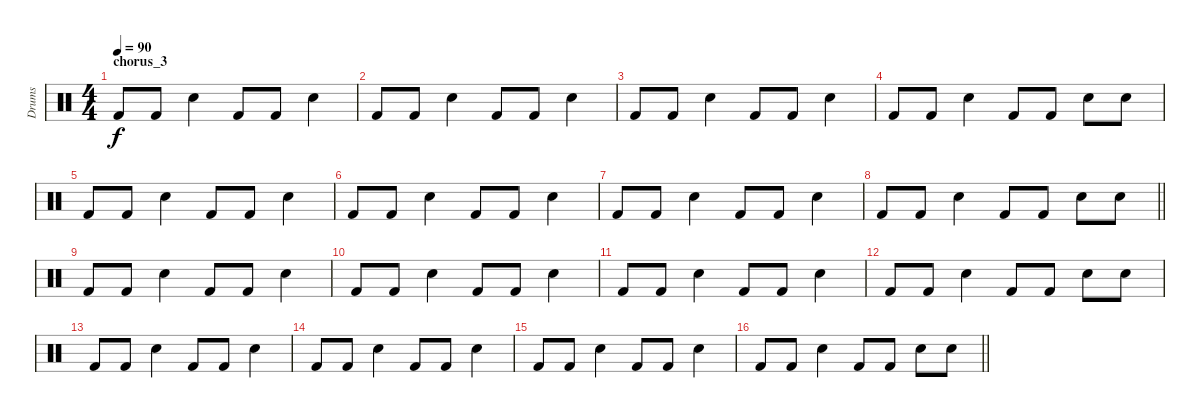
\track ("Drums" "Drums") {instrument percussion}
\staff {score}
\articulation defaults
\ts (4 4)
\section ("" "chorus_3")
\tempo 90
\clef neutral
\ks c "Kick (hit) 2".8{dy f} "Kick (hit) 2".8 "Electric Snare (hit)".4 "Kick (hit) 2".8 "Kick (hit) 2".8 "Electric Snare (hit)".4
|
"Kick (hit) 2".8 "Kick (hit) 2".8 "Electric Snare (hit)".4 "Kick (hit) 2".8 "Kick (hit) 2".8 "Electric Snare (hit)".4 |
"Kick (hit) 2".8 "Kick (hit) 2".8 "Electric Snare (hit)".4 "Kick (hit) 2".8 "Kick (hit) 2".8 "Electric Snare (hit)".4 |
"Kick (hit) 2".8 "Kick (hit) 2".8 "Electric Snare (hit)".4 "Kick (hit) 2".8 "Kick (hit) 2".8 "Electric Snare (hit)".8 "Snare (hit) 2".8 |
"Kick (hit) 2".8 "Kick (hit) 2".8 "Electric Snare (hit)".4 "Kick (hit) 2".8 "Kick (hit) 2".8 "Electric Snare (hit)".4 |
"Kick (hit) 2".8 "Kick (hit) 2".8 "Electric Snare (hit)".4 "Kick (hit) 2".8 "Kick (hit) 2".8 "Electric Snare (hit)".4 |
"Kick (hit) 2".8 "Kick (hit) 2".8 "Electric Snare (hit)".4 "Kick (hit) 2".8 "Kick (hit) 2".8 "Electric Snare (hit)".4 |
\barLineRight lightlight "Kick (hit) 2".8 "Kick (hit) 2".8 "Electric Snare (hit)".4 "Kick (hit) 2".8 "Kick (hit) 2".8 "Electric Snare (hit)".8 "Snare (hit) 2".8
|
\section ("" "")
"Kick (hit) 2".8 "Kick (hit) 2".8 "Electric Snare (hit)".4 "Kick (hit) 2".8 "Kick (hit) 2".8 "Electric Snare (hit)".4 |
"Kick (hit) 2".8 "Kick (hit) 2".8 "Electric Snare (hit)".4 "Kick (hit) 2".8 "Kick (hit) 2".8 "Electric Snare (hit)".4 |
"Kick (hit) 2".8 "Kick (hit) 2".8 "Electric Snare (hit)".4 "Kick (hit) 2".8 "Kick (hit) 2".8 "Electric Snare (hit)".4 |
"Kick (hit) 2".8 "Kick (hit) 2".8 "Electric Snare (hit)".4 "Kick (hit) 2".8 "Kick (hit) 2".8 "Electric Snare (hit)".8 "Snare (hit) 2".8 |
"Kick (hit) 2".8 "Kick (hit) 2".8 "Electric Snare (hit)".4 "Kick (hit) 2".8 "Kick (hit) 2".8 "Electric Snare (hit)".4 |
"Kick (hit) 2".8 "Kick (hit) 2".8 "Electric Snare (hit)".4 "Kick (hit) 2".8 "Kick (hit) 2".8 "Electric Snare (hit)".4 |
"Kick (hit) 2".8 "Kick (hit) 2".8 "Electric Snare (hit)".4 "Kick (hit) 2".8 "Kick (hit) 2".8 "Electric Snare (hit)".4 |
\barLineRight lightlight "Kick (hit) 2".8 "Kick (hit) 2".8 "Electric Snare (hit)".4 "Kick (hit) 2".8 "Kick (hit) 2".8 "Electric Snare (hit)".8 "Snare (hit) 2".8
